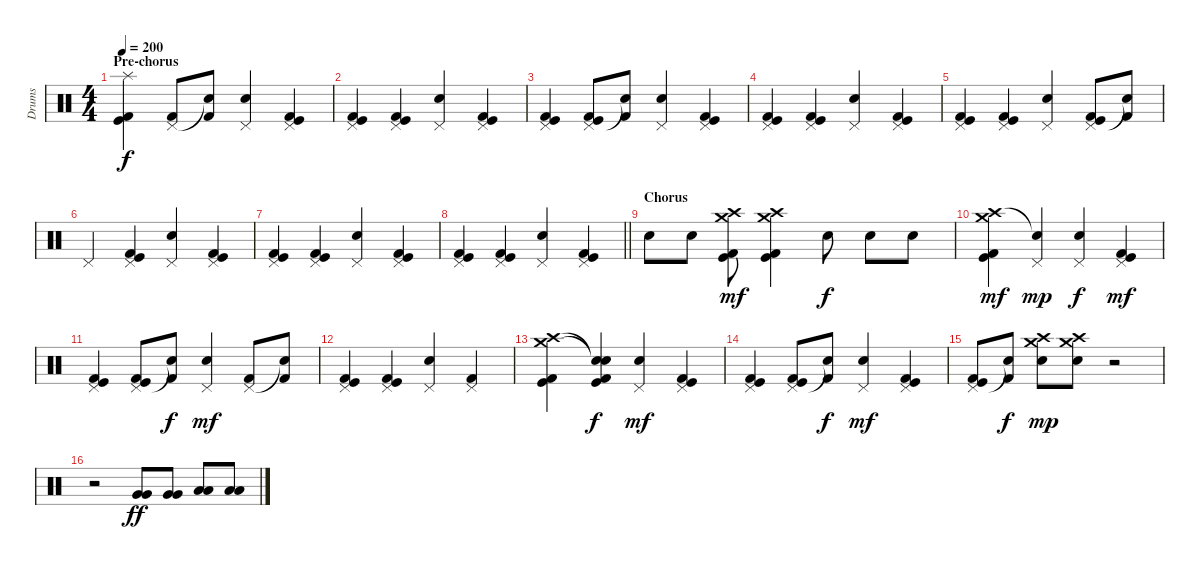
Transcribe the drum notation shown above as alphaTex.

\track ("Drums" "Drums") {instrument percussion}
\staff {score}
\articulation defaults
\ts (4 4)
\section ("" "Pre-chorus")
\tempo 200
\clef neutral
\ks c
("Splash (hit)" "Kick (hit)" "Kick (hit) 2").4{dy f} ("Pedal Hi-Hat (hit)" "Kick (hit) 2").8 ("Snare (hit)"{t} "Kick (hit) 2").8 ("Pedal Hi-Hat (hit)" "Snare (hit) 2").4 ("Pedal Hi-Hat (hit)" "Kick (hit)" "Kick (hit) 2").4 |
("Pedal Hi-Hat (hit)" "Kick (hit)" "Kick (hit) 2").4 ("Pedal Hi-Hat (hit)" "Kick (hit)" "Kick (hit) 2").4 ("Pedal Hi-Hat (hit)" "Snare (hit) 2").4 ("Pedal Hi-Hat (hit)" "Kick (hit)" "Kick (hit) 2").4 |
("Pedal Hi-Hat (hit)" "Kick (hit)" "Kick (hit) 2").4 ("Pedal Hi-Hat (hit)" "Kick (hit)" "Kick (hit) 2").8 ("Snare (hit)"{t} "Kick (hit) 2").8 ("Pedal Hi-Hat (hit)" "Snare (hit) 2").4 ("Pedal Hi-Hat (hit)" "Kick (hit)" "Kick (hit) 2").4 |
("Pedal Hi-Hat (hit)" "Kick (hit)" "Kick (hit) 2").4 ("Pedal Hi-Hat (hit)" "Kick (hit)" "Kick (hit) 2").4 ("Pedal Hi-Hat (hit)" "Snare (hit) 2").4 ("Pedal Hi-Hat (hit)" "Kick (hit)" "Kick (hit) 2").4 |
("Pedal Hi-Hat (hit)" "Kick (hit)" "Kick (hit) 2").4 ("Pedal Hi-Hat (hit)" "Kick (hit)" "Kick (hit) 2").4 ("Pedal Hi-Hat (hit)" "Snare (hit) 2").4 ("Pedal Hi-Hat (hit)" "Kick (hit)" "Kick (hit) 2").8 ("Snare (hit)"{t} "Kick (hit) 2").8 |
"Pedal Hi-Hat (hit)".4 ("Pedal Hi-Hat (hit)" "Kick (hit)" "Kick (hit) 2").4 ("Pedal Hi-Hat (hit)" "Snare (hit) 2").4 ("Pedal Hi-Hat (hit)" "Kick (hit)" "Kick (hit) 2").4 |
("Pedal Hi-Hat (hit)" "Kick (hit)" "Kick (hit) 2").4 ("Pedal Hi-Hat (hit)" "Kick (hit)" "Kick (hit) 2").4 ("Pedal Hi-Hat (hit)" "Snare (hit) 2").4 ("Pedal Hi-Hat (hit)" "Kick (hit)" "Kick (hit) 2").4 |
\barLineRight lightlight
("Pedal Hi-Hat (hit)" "Kick (hit)" "Kick (hit) 2").4 ("Pedal Hi-Hat (hit)" "Kick (hit)" "Kick (hit) 2").4 ("Pedal Hi-Hat (hit)" "Snare (hit) 2").4 ("Pedal Hi-Hat (hit)" "Kick (hit)" "Kick (hit) 2").4 |
\section ("" "Chorus")
"Snare (hit) 2".8 "Snare (hit) 2".8 ("Crash high (hit)" "Crash medium (hit)" "Kick (hit)" "Kick (hit) 2").8{dy mf} ("Crash high (hit)" "Crash medium (hit)" "Kick (hit)" "Kick (hit) 2").4 "Snare (hit) 2".8{dy f} "Snare (hit) 2".8 "Snare (hit) 2".8 |
("Crash high (hit)" "Crash medium (hit)" "Kick (hit)" "Kick (hit) 2").4{dy mf} ("Snare (hit)"{t} "Pedal Hi-Hat (hit)").4{dy mp} ("Pedal Hi-Hat (hit)" "Snare (hit) 2").4{dy f} ("Pedal Hi-Hat (hit)" "Kick (hit)" "Kick (hit) 2").4{dy mf} |
("Pedal Hi-Hat (hit)" "Kick (hit)" "Kick (hit) 2").4 ("Pedal Hi-Hat (hit)" "Kick (hit)" "Kick (hit) 2").8 ("Snare (hit)"{t} "Kick (hit) 2").8{dy f} ("Pedal Hi-Hat (hit)" "Snare (hit) 2").4{dy mf} ("Pedal Hi-Hat (hit)" "Kick (hit) 2").8 ("Snare (hit)"{t} "Kick (hit) 2").8 |
("Pedal Hi-Hat (hit)" "Kick (hit)" "Kick (hit) 2").4 ("Pedal Hi-Hat (hit)" "Kick (hit)" "Kick (hit) 2").4 ("Pedal Hi-Hat (hit)" "Snare (hit) 2").4 ("Pedal Hi-Hat (hit)" "Kick (hit) 2").4 |
("Crash high (hit)" "Crash medium (hit)" "Kick (hit)" "Kick (hit) 2").4 ("Snare (hit)"{t} "Snare (hit)"{t} "Kick (hit)" "Kick (hit) 2").4{dy f} ("Pedal Hi-Hat (hit)" "Snare (hit) 2").4{dy mf} ("Pedal Hi-Hat (hit)" "Kick (hit)" "Kick (hit) 2").4 |
("Pedal Hi-Hat (hit)" "Kick (hit)" "Kick (hit) 2").4 ("Pedal Hi-Hat (hit)" "Kick (hit)" "Kick (hit) 2").8 ("Snare (hit)"{t} "Kick (hit) 2").8{dy f} ("Pedal Hi-Hat (hit)" "Snare (hit) 2").4{dy mf} ("Pedal Hi-Hat (hit)" "Kick (hit)" "Kick (hit) 2").4 |
("Pedal Hi-Hat (hit)" "Kick (hit)" "Kick (hit) 2").8 ("Snare (hit)"{t} "Kick (hit) 2").8{dy f} ("Crash high (hit)" "Crash medium (hit)" "Snare (hit) 2").8{dy mp} ("Crash high (hit)" "Crash medium (hit)" "Snare (hit) 2").8 r.2 |
r.2 ("Very Low Tom (hit)" "Very Low Tom (hit)").8{dy ff} ("Very Low Tom (hit)" "Very Low Tom (hit)").8 ("Low Tom (hit)" "Low Tom (hit)").8 ("Low Tom (hit)" "Low Tom (hit)").8
